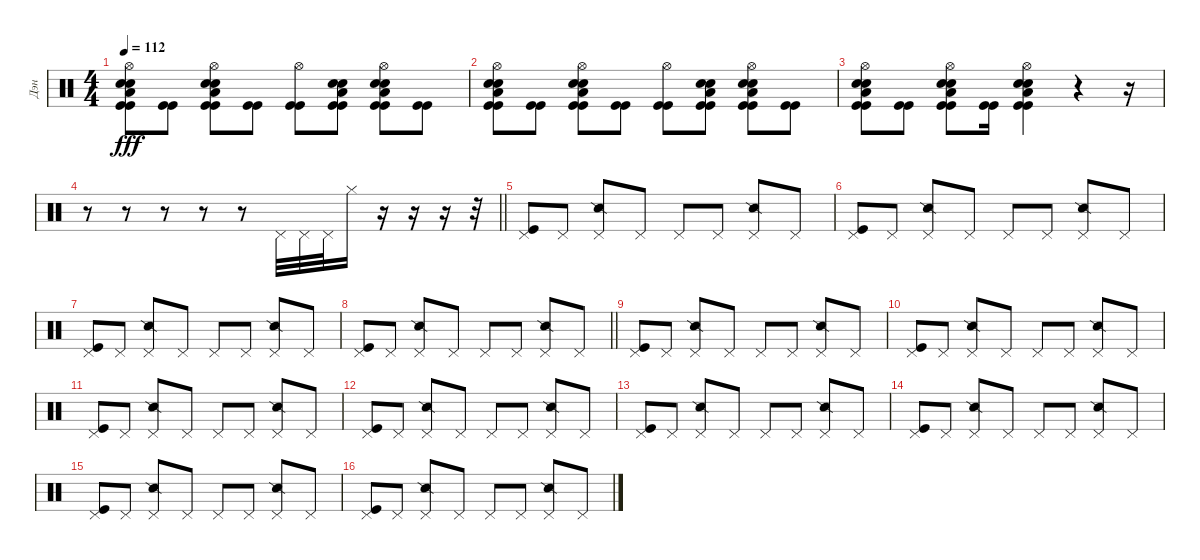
\track ("Дэн" "Дэн") {instrument percussion}
\staff {score}
\articulation defaults
\ts (4 4)
\tempo 112
\clef neutral
\ks c
("Hi-Hat (open)" "Kick (hit)" "Kick (hit)" "Electric Snare (hit)" "Electric Snare (hit)" "Low Tom (hit)").8{dy fff} ("Kick (hit)" "Kick (hit)").8 ("Hi-Hat (open)" "Kick (hit)" "Kick (hit)" "Electric Snare (hit)" "Electric Snare (hit)" "Low Tom (hit)").8 ("Kick (hit)" "Kick (hit)").8 ("Hi-Hat (open)" "Kick (hit)" "Kick (hit)").8 ("Kick (hit)" "Kick (hit)" "Electric Snare (hit)" "Electric Snare (hit)" "Low Tom (hit)").8 ("Hi-Hat (open)" "Kick (hit)" "Kick (hit)" "Electric Snare (hit)" "Electric Snare (hit)" "Low Tom (hit)").8 ("Kick (hit)" "Kick (hit)").8 |
("Hi-Hat (open)" "Kick (hit)" "Kick (hit)" "Electric Snare (hit)" "Electric Snare (hit)" "Low Tom (hit)").8 ("Kick (hit)" "Kick (hit)").8 ("Hi-Hat (open)" "Kick (hit)" "Kick (hit)" "Electric Snare (hit)" "Electric Snare (hit)" "Low Tom (hit)").8 ("Kick (hit)" "Kick (hit)").8 ("Hi-Hat (open)" "Kick (hit)" "Kick (hit)").8 ("Kick (hit)" "Kick (hit)" "Electric Snare (hit)" "Electric Snare (hit)" "Low Tom (hit)").8 ("Hi-Hat (open)" "Kick (hit)" "Kick (hit)" "Electric Snare (hit)" "Electric Snare (hit)" "Low Tom (hit)").8 ("Kick (hit)" "Kick (hit)").8 |
("Hi-Hat (open)" "Kick (hit)" "Kick (hit)" "Electric Snare (hit)" "Electric Snare (hit)" "Low Tom (hit)").8 ("Kick (hit)" "Kick (hit)").8 ("Hi-Hat (open)" "Kick (hit)" "Kick (hit)" "Electric Snare (hit)" "Electric Snare (hit)" "Low Tom (hit)").8 ("Kick (hit)" "Kick (hit)").16 ("Hi-Hat (open)" "Kick (hit)" "Kick (hit)" "Electric Snare (hit)" "Electric Snare (hit)" "Low Tom (hit)").4 r.4 r.16 |
\barLineRight lightlight
r.8 r.8 r.8 r.8 r.8 "Pedal Hi-Hat (hit)".32 "Pedal Hi-Hat (hit)".32 "Pedal Hi-Hat (hit)".32 "Hi-Hat (closed)".16 r.16 r.16 r.16 r.32 |
("Pedal Hi-Hat (hit)" "Kick (hit)").8 "Pedal Hi-Hat (hit)".8 ("Pedal Hi-Hat (hit)" "Snare (side stick) 2").8 "Pedal Hi-Hat (hit)".8 "Pedal Hi-Hat (hit)".8 "Pedal Hi-Hat (hit)".8 ("Pedal Hi-Hat (hit)" "Snare (side stick) 2").8 "Pedal Hi-Hat (hit)".8 |
("Pedal Hi-Hat (hit)" "Kick (hit)").8 "Pedal Hi-Hat (hit)".8 ("Pedal Hi-Hat (hit)" "Snare (side stick) 2").8 "Pedal Hi-Hat (hit)".8 "Pedal Hi-Hat (hit)".8 "Pedal Hi-Hat (hit)".8 ("Pedal Hi-Hat (hit)" "Snare (side stick) 2").8 "Pedal Hi-Hat (hit)".8 |
("Pedal Hi-Hat (hit)" "Kick (hit)").8 "Pedal Hi-Hat (hit)".8 ("Pedal Hi-Hat (hit)" "Snare (side stick) 2").8 "Pedal Hi-Hat (hit)".8 "Pedal Hi-Hat (hit)".8 "Pedal Hi-Hat (hit)".8 ("Pedal Hi-Hat (hit)" "Snare (side stick) 2").8 "Pedal Hi-Hat (hit)".8 |
\barLineRight lightlight
("Pedal Hi-Hat (hit)" "Kick (hit)").8 "Pedal Hi-Hat (hit)".8 ("Pedal Hi-Hat (hit)" "Snare (side stick) 2").8 "Pedal Hi-Hat (hit)".8 "Pedal Hi-Hat (hit)".8 "Pedal Hi-Hat (hit)".8 ("Pedal Hi-Hat (hit)" "Snare (side stick) 2").8 "Pedal Hi-Hat (hit)".8 |
("Pedal Hi-Hat (hit)" "Kick (hit)").8 "Pedal Hi-Hat (hit)".8 ("Pedal Hi-Hat (hit)" "Snare (side stick) 2").8 "Pedal Hi-Hat (hit)".8 "Pedal Hi-Hat (hit)".8 "Pedal Hi-Hat (hit)".8 ("Pedal Hi-Hat (hit)" "Snare (side stick) 2").8 "Pedal Hi-Hat (hit)".8 |
("Pedal Hi-Hat (hit)" "Kick (hit)").8 "Pedal Hi-Hat (hit)".8 ("Pedal Hi-Hat (hit)" "Snare (side stick) 2").8 "Pedal Hi-Hat (hit)".8 "Pedal Hi-Hat (hit)".8 "Pedal Hi-Hat (hit)".8 ("Pedal Hi-Hat (hit)" "Snare (side stick) 2").8 "Pedal Hi-Hat (hit)".8 |
("Pedal Hi-Hat (hit)" "Kick (hit)").8 "Pedal Hi-Hat (hit)".8 ("Pedal Hi-Hat (hit)" "Snare (side stick) 2").8 "Pedal Hi-Hat (hit)".8 "Pedal Hi-Hat (hit)".8 "Pedal Hi-Hat (hit)".8 ("Pedal Hi-Hat (hit)" "Snare (side stick) 2").8 "Pedal Hi-Hat (hit)".8 |
("Pedal Hi-Hat (hit)" "Kick (hit)").8 "Pedal Hi-Hat (hit)".8 ("Pedal Hi-Hat (hit)" "Snare (side stick) 2").8 "Pedal Hi-Hat (hit)".8 "Pedal Hi-Hat (hit)".8 "Pedal Hi-Hat (hit)".8 ("Pedal Hi-Hat (hit)" "Snare (side stick) 2").8 "Pedal Hi-Hat (hit)".8 |
("Pedal Hi-Hat (hit)" "Kick (hit)").8 "Pedal Hi-Hat (hit)".8 ("Pedal Hi-Hat (hit)" "Snare (side stick) 2").8 "Pedal Hi-Hat (hit)".8 "Pedal Hi-Hat (hit)".8 "Pedal Hi-Hat (hit)".8 ("Pedal Hi-Hat (hit)" "Snare (side stick) 2").8 "Pedal Hi-Hat (hit)".8 |
("Pedal Hi-Hat (hit)" "Kick (hit)").8 "Pedal Hi-Hat (hit)".8 ("Pedal Hi-Hat (hit)" "Snare (side stick) 2").8 "Pedal Hi-Hat (hit)".8 "Pedal Hi-Hat (hit)".8 "Pedal Hi-Hat (hit)".8 ("Pedal Hi-Hat (hit)" "Snare (side stick) 2").8 "Pedal Hi-Hat (hit)".8 |
("Pedal Hi-Hat (hit)" "Kick (hit)").8 "Pedal Hi-Hat (hit)".8 ("Pedal Hi-Hat (hit)" "Snare (side stick) 2").8 "Pedal Hi-Hat (hit)".8 "Pedal Hi-Hat (hit)".8 "Pedal Hi-Hat (hit)".8 ("Pedal Hi-Hat (hit)" "Snare (side stick) 2").8 "Pedal Hi-Hat (hit)".8 |
("Pedal Hi-Hat (hit)" "Kick (hit)").8 "Pedal Hi-Hat (hit)".8 ("Pedal Hi-Hat (hit)" "Snare (side stick) 2").8 "Pedal Hi-Hat (hit)".8 "Pedal Hi-Hat (hit)".8 "Pedal Hi-Hat (hit)".8 ("Pedal Hi-Hat (hit)" "Snare (side stick) 2").8 "Pedal Hi-Hat (hit)".8
